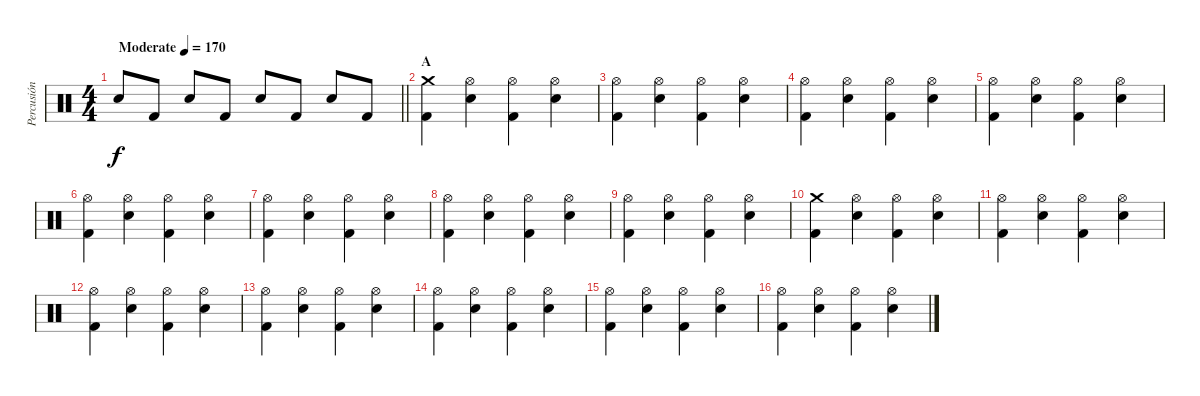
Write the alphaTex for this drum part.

\track ("Percusión" "Percusión") {instrument percussion}
\staff {score}
\articulation defaults
\ts (4 4)
\tempo (170 "Moderate")
\clef neutral
\barLineRight lightlight
\ks c "Snare (hit) 2".8{dy f} "Kick (hit) 2".8 "Snare (hit) 2".8 "Kick (hit) 2".8 "Snare (hit) 2".8 "Kick (hit) 2".8 "Snare (hit) 2".8 "Kick (hit) 2".8
|
\section ("" "A")
("Crash medium (hit)" "Kick (hit) 2").4 ("Hi-Hat (open)" "Snare (hit) 2").4 ("Hi-Hat (open)" "Kick (hit) 2").4 ("Hi-Hat (open)" "Snare (hit) 2").4 |
("Hi-Hat (open)" "Kick (hit) 2").4 ("Hi-Hat (open)" "Snare (hit) 2").4 ("Hi-Hat (open)" "Kick (hit) 2").4 ("Hi-Hat (open)" "Snare (hit) 2").4 |
("Hi-Hat (open)" "Kick (hit) 2").4 ("Hi-Hat (open)" "Snare (hit) 2").4 ("Hi-Hat (open)" "Kick (hit) 2").4 ("Hi-Hat (open)" "Snare (hit) 2").4 |
("Hi-Hat (open)" "Kick (hit) 2").4 ("Hi-Hat (open)" "Snare (hit) 2").4 ("Hi-Hat (open)" "Kick (hit) 2").4 ("Hi-Hat (open)" "Snare (hit) 2").4 |
("Hi-Hat (open)" "Kick (hit) 2").4 ("Hi-Hat (open)" "Snare (hit) 2").4 ("Hi-Hat (open)" "Kick (hit) 2").4 ("Hi-Hat (open)" "Snare (hit) 2").4 |
("Hi-Hat (open)" "Kick (hit) 2").4 ("Hi-Hat (open)" "Snare (hit) 2").4 ("Hi-Hat (open)" "Kick (hit) 2").4 ("Hi-Hat (open)" "Snare (hit) 2").4 |
("Hi-Hat (open)" "Kick (hit) 2").4 ("Hi-Hat (open)" "Snare (hit) 2").4 ("Hi-Hat (open)" "Kick (hit) 2").4 ("Hi-Hat (open)" "Snare (hit) 2").4 |
("Hi-Hat (open)" "Kick (hit) 2").4 ("Hi-Hat (open)" "Snare (hit) 2").4 ("Hi-Hat (open)" "Kick (hit) 2").4 ("Hi-Hat (open)" "Snare (hit) 2").4 |
("Crash medium (hit)" "Kick (hit) 2").4 ("Hi-Hat (open)" "Snare (hit) 2").4 ("Hi-Hat (open)" "Kick (hit) 2").4 ("Hi-Hat (open)" "Snare (hit) 2").4 |
("Hi-Hat (open)" "Kick (hit) 2").4 ("Hi-Hat (open)" "Snare (hit) 2").4 ("Hi-Hat (open)" "Kick (hit) 2").4 ("Hi-Hat (open)" "Snare (hit) 2").4 |
("Hi-Hat (open)" "Kick (hit) 2").4 ("Hi-Hat (open)" "Snare (hit) 2").4 ("Hi-Hat (open)" "Kick (hit) 2").4 ("Hi-Hat (open)" "Snare (hit) 2").4 |
("Hi-Hat (open)" "Kick (hit) 2").4 ("Hi-Hat (open)" "Snare (hit) 2").4 ("Hi-Hat (open)" "Kick (hit) 2").4 ("Hi-Hat (open)" "Snare (hit) 2").4 |
("Hi-Hat (open)" "Kick (hit) 2").4 ("Hi-Hat (open)" "Snare (hit) 2").4 ("Hi-Hat (open)" "Kick (hit) 2").4 ("Hi-Hat (open)" "Snare (hit) 2").4 |
("Hi-Hat (open)" "Kick (hit) 2").4 ("Hi-Hat (open)" "Snare (hit) 2").4 ("Hi-Hat (open)" "Kick (hit) 2").4 ("Hi-Hat (open)" "Snare (hit) 2").4 |
("Hi-Hat (open)" "Kick (hit) 2").4 ("Hi-Hat (open)" "Snare (hit) 2").4 ("Hi-Hat (open)" "Kick (hit) 2").4 ("Hi-Hat (open)" "Snare (hit) 2").4
